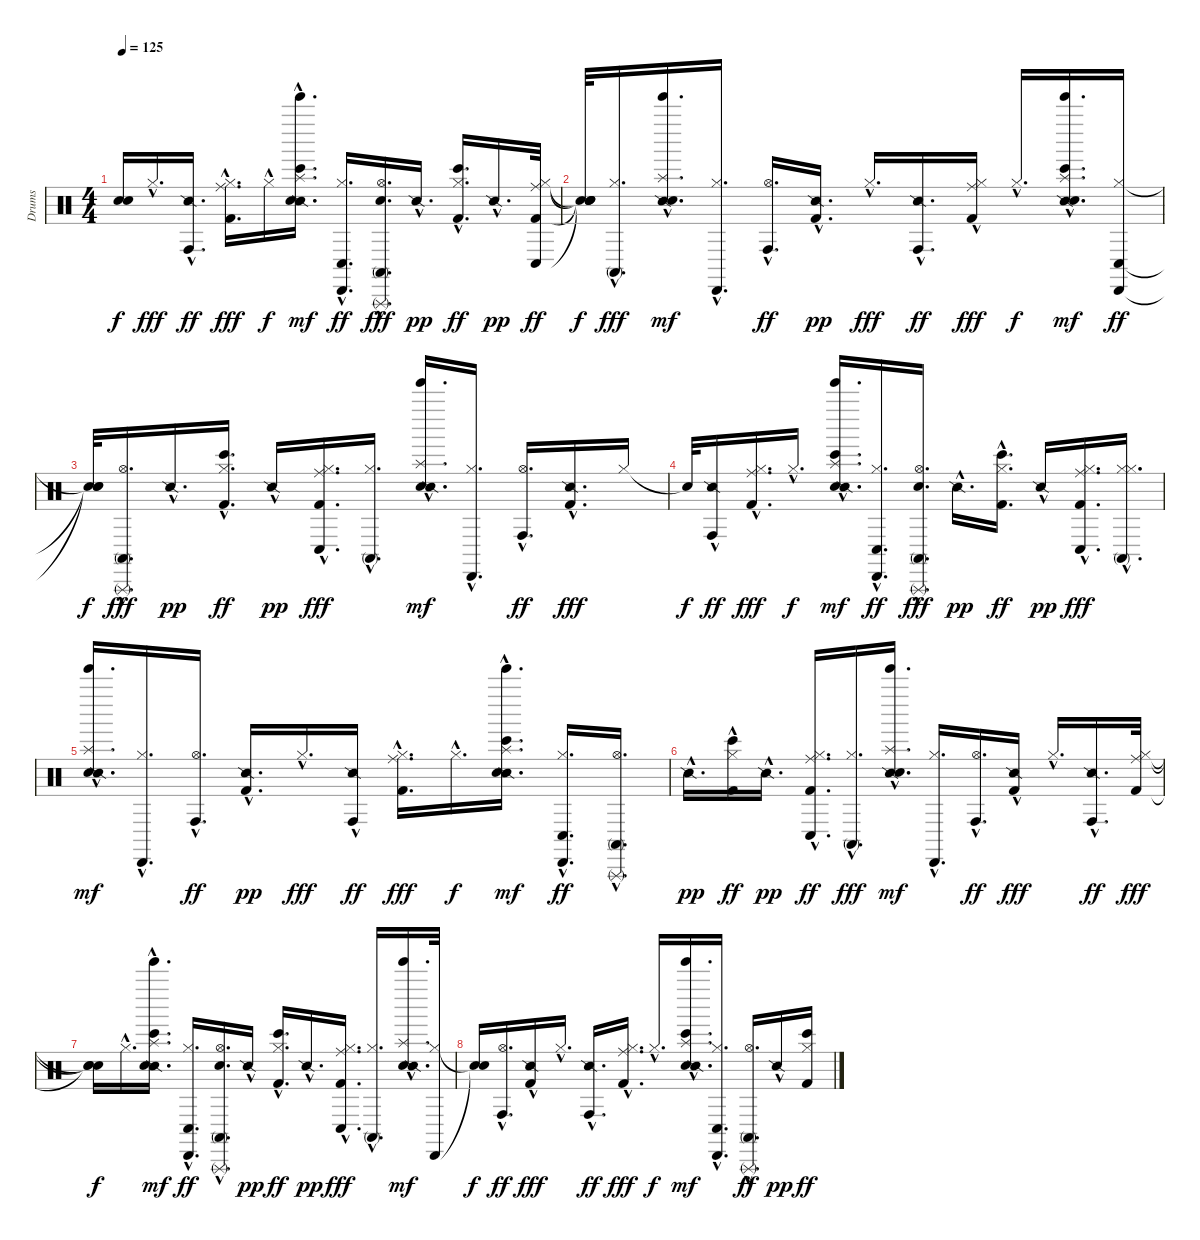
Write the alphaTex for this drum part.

\track ("Drums" "Drums") {instrument percussion}
\staff {score}
\articulation defaults
\ts (4 4)
\tempo 125
\clef neutral
\ks c
("Snare (hit)"{t} "Snare (hit)"{t}).16{dy f} "Hi-Hat (closed)"{hac}.16{d dy fff} ("Snare (side stick) 2"{hac} "Conga high (hit)"{hac}).16{d dy ff} ("Kick (hit) 2"{hac} "Hi-Hat (closed)"{hac} "Ride (middle)"{hac}).16{d dy fff} "Hi-Hat (closed)"{hac}.16{dy f} ("Snare (side stick) 2"{hac} "Hand Clap (hit)"{hac} "Bongo High (hit)"{hac} "Tinkle Bell (hit)"{hac} "Splash (hit)"{hac}).16{d dy mf} ("Hi-Hat (closed)"{hac} "Cabasa (hit)"{hac} "Conga low (hit)"{hac}).16{d dy ff} ("Hand Clap (hit)"{hac} "Triangle (rnute)"{hac} "Hi-Hat (open)"{hac} "Conga high (mute)"{hac}).16{d dy fff} "Snare (side stick) 2"{hac}.16{d dy pp} ("Kick (hit) 2"{hac} "Hi-Hat (closed)"{hac} "Bongo High (hit)"{hac}).16{d dy ff} "Snare (side stick) 2"{hac}.16{d dy pp} ("Kick (hit) 2" "Hi-Hat (closed)" "Conga low (hit)" "Ride (middle)").32{dy ff} |
("Snare (hit)"{t} "Snare (hit)"{t} "Snare (hit)"{t} "Snare (hit)"{t}).32{dy f} ("Hi-Hat (closed)"{hac} "Conga high (mute)"{hac}).16{d dy fff} ("Snare (side stick) 2"{hac} "Hand Clap (hit)"{hac} "Tinkle Bell (hit)"{hac} "Splash (hit)"{hac}).16{d dy mf} ("Hi-Hat (closed)"{hac} "Cabasa (hit)"{hac}).16{d} ("Hi-Hat (open)"{hac} "Conga high (hit)"{hac}).16{d dy ff} ("Kick (hit) 2"{hac} "Snare (side stick) 2"{hac}).16{d dy pp} "Hi-Hat (closed)"{hac}.16{d dy fff} ("Snare (side stick) 2"{hac} "Conga high (hit)"{hac}).16{d dy ff} ("Kick (hit) 2"{hac} "Ride (middle)"{hac} "Hi-Hat (closed)"{hac}).16{dy fff} "Hi-Hat (closed)"{hac}.16{d dy f} ("Snare (side stick) 2"{hac} "Hand Clap (hit)"{hac} "Bongo High (hit)"{hac} "Tinkle Bell (hit)"{hac} "Splash (hit)"{hac}).16{d dy mf} ("Cabasa (hit)" "Hi-Hat (closed)" "Conga low (hit)").16{dy ff} |
("Snare (hit)"{t} "Snare (hit)"{t} "Snare (hit)"{t}).32{dy f} ("Conga high (mute)"{hac} "Triangle (rnute)"{hac} "Hi-Hat (open)"{hac}).16{d dy fff} "Snare (side stick) 2"{hac}.16{d dy pp} ("Kick (hit) 2"{hac} "Hi-Hat (closed)"{hac} "Bongo High (hit)"{hac}).16{d dy ff} "Snare (side stick) 2"{hac}.16{dy pp} ("Ride (middle)"{hac} "Conga low (hit)"{hac} "Kick (hit) 2"{hac} "Hi-Hat (closed)"{hac}).16{d dy fff} ("Hi-Hat (closed)"{hac} "Conga high (mute)"{hac}).16{d} ("Hand Clap (hit)"{hac} "Snare (side stick) 2"{hac} "Tinkle Bell (hit)"{hac} "Splash (hit)"{hac}).16{d dy mf} ("Cabasa (hit)"{hac} "Hi-Hat (closed)"{hac}).16{d} ("Hi-Hat (open)"{hac} "Conga high (hit)"{hac}).16{d dy ff} ("Snare (side stick) 2"{hac} "Kick (hit) 2"{hac}).16{d dy fff} "Hi-Hat (closed)".16 |
"Snare (hit)"{t}.32{dy f} ("Snare (side stick) 2"{hac} "Conga high (hit)"{hac}).16{dy ff} ("Hi-Hat (closed)"{hac} "Kick (hit) 2"{hac} "Ride (middle)"{hac}).16{d dy fff} "Hi-Hat (closed)"{hac}.16{d dy f} ("Hand Clap (hit)"{hac} "Snare (side stick) 2"{hac} "Bongo High (hit)"{hac} "Tinkle Bell (hit)"{hac} "Splash (hit)"{hac}).16{d dy mf} ("Cabasa (hit)"{hac} "Hi-Hat (closed)"{hac} "Conga low (hit)"{hac}).16{d dy ff} ("Hand Clap (hit)"{hac} "Conga high (mute)"{hac} "Triangle (rnute)"{hac} "Hi-Hat (open)"{hac}).16{d dy fff} "Snare (side stick) 2"{hac}.16{d dy pp} ("Kick (hit) 2"{hac} "Hi-Hat (closed)"{hac} "Bongo High (hit)"{hac}).16{d dy ff} "Snare (side stick) 2"{hac}.16{dy pp} ("Ride (middle)"{hac} "Conga low (hit)"{hac} "Hi-Hat (closed)"{hac} "Kick (hit) 2"{hac}).16{d dy fff} ("Hi-Hat (closed)"{hac} "Conga high (mute)"{hac} "Hi-Hat (closed)"{hac}).16{d} |
("Hand Clap (hit)"{hac} "Snare (side stick) 2"{hac} "Tinkle Bell (hit)"{hac} "Splash (hit)"{hac}).16{d dy mf} ("Hi-Hat (closed)"{hac} "Cabasa (hit)"{hac}).16{d} ("Hi-Hat (open)"{hac} "Conga high (hit)"{hac}).16{d dy ff} ("Kick (hit) 2"{hac} "Snare (side stick) 2"{hac}).16{d dy pp} "Hi-Hat (closed)"{hac}.16{d dy fff} ("Snare (side stick) 2"{hac} "Conga high (hit)"{hac}).16{dy ff} ("Hi-Hat (closed)"{hac} "Ride (middle)"{hac} "Kick (hit) 2"{hac}).16{d dy fff} "Hi-Hat (closed)"{hac}.16{d dy f} ("Snare (side stick) 2"{hac} "Bongo High (hit)"{hac} "Hand Clap (hit)"{hac} "Tinkle Bell (hit)"{hac} "Splash (hit)"{hac}).16{d dy mf} ("Hi-Hat (closed)"{hac} "Conga low (hit)"{hac} "Cabasa (hit)"{hac}).16{d dy ff} ("Hi-Hat (open)"{hac} "Conga high (mute)"{hac} "Triangle (rnute)"{hac}).16{d} |
"Snare (side stick) 2"{hac}.16{d dy pp} ("Hi-Hat (closed)"{hac} "Kick (hit) 2"{hac} "Bongo High (hit)"{hac}).16{dy ff} "Snare (side stick) 2"{hac}.16{d dy pp} ("Kick (hit) 2"{hac} "Ride (middle)"{hac} "Hi-Hat (closed)"{hac} "Conga low (hit)"{hac}).16{d dy ff} ("Hi-Hat (closed)"{hac} "Conga high (mute)"{hac}).16{d dy fff} ("Snare (side stick) 2"{hac} "Hand Clap (hit)"{hac} "Tinkle Bell (hit)"{hac} "Splash (hit)"{hac}).16{d dy mf} ("Cabasa (hit)"{hac} "Hi-Hat (closed)"{hac}).16{d} ("Hi-Hat (open)"{hac} "Conga high (hit)"{hac}).16{d dy ff} ("Snare (side stick) 2"{hac} "Kick (hit) 2"{hac}).16{dy fff} "Hi-Hat (closed)"{hac}.16{d} ("Snare (side stick) 2"{hac} "Conga high (hit)"{hac}).16{d dy ff} ("Kick (hit) 2" "Ride (middle)" "Hi-Hat (closed)").32{dy fff} |
("Snare (hit)"{t} "Snare (hit)"{t} "Snare (hit)"{t}).16{dy f} "Hi-Hat (closed)"{hac}.16{d} ("Snare (side stick) 2"{hac} "Hand Clap (hit)"{hac} "Bongo High (hit)"{hac} "Tinkle Bell (hit)"{hac} "Splash (hit)"{hac}).16{d dy mf} ("Cabasa (hit)"{hac} "Hi-Hat (closed)"{hac} "Conga low (hit)"{hac}).16{d dy ff} ("Hi-Hat (open)"{hac} "Hand Clap (hit)"{hac} "Conga high (mute)"{hac} "Triangle (rnute)"{hac}).16{d} "Snare (side stick) 2"{hac}.16{dy pp} ("Hi-Hat (closed)"{hac} "Kick (hit) 2"{hac} "Bongo High (hit)"{hac}).16{d dy ff} "Snare (side stick) 2"{hac}.16{d dy pp} ("Hi-Hat (closed)"{hac} "Conga low (hit)"{hac} "Ride (middle)"{hac} "Kick (hit) 2"{hac}).16{d dy fff} ("Hi-Hat (closed)"{hac} "Conga high (mute)"{hac}).16{d} ("Hand Clap (hit)"{hac} "Snare (side stick) 2"{hac} "Tinkle Bell (hit)"{hac} "Splash (hit)"{hac}).16{d dy mf} ("Hi-Hat (closed)" "Cabasa (hit)").32 |
("Snare (hit)"{t} "Snare (hit)"{t}).16{dy f} ("Hi-Hat (open)"{hac} "Conga high (hit)"{hac}).16{d dy ff} ("Snare (side stick) 2"{hac} "Kick (hit) 2"{hac}).16{dy fff} "Hi-Hat (closed)"{hac}.16{d} ("Snare (side stick) 2"{hac} "Conga high (hit)"{hac}).16{d dy ff} ("Ride (middle)"{hac} "Kick (hit) 2"{hac} "Hi-Hat (closed)"{hac}).16{d dy fff} "Hi-Hat (closed)"{hac}.16{d dy f} ("Bongo High (hit)"{hac} "Hand Clap (hit)"{hac} "Snare (side stick) 2"{hac} "Tinkle Bell (hit)"{hac} "Splash (hit)"{hac}).16{d dy mf} ("Conga low (hit)"{hac} "Cabasa (hit)"{hac} "Hi-Hat (closed)"{hac}).16{d} ("Conga high (mute)"{hac} "Hi-Hat (open)"{hac} "Triangle (rnute)"{hac}).16{d dy ff} "Snare (side stick) 2"{hac}.16{dy pp} ("Hi-Hat (closed)" "Kick (hit) 2" "Bongo High (hit)").16{dy ff}
